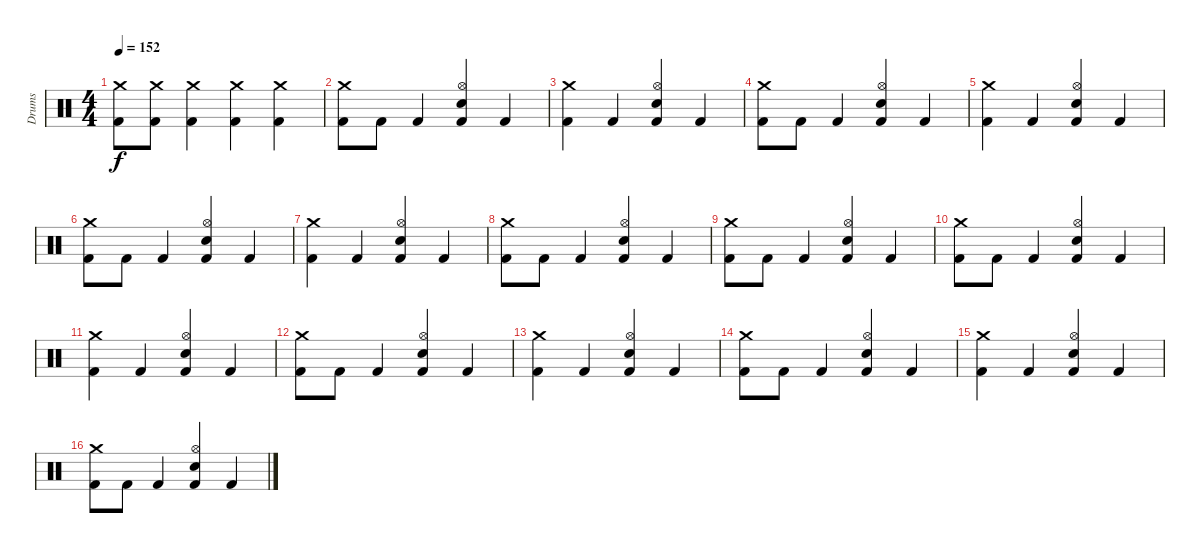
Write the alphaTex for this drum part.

\track ("Drums" "Drums") {instrument percussion}
\staff {score}
\articulation defaults
\ts (4 4)
\tempo 152
\clef neutral
\ks c
("Crash medium (hit)" "Kick (hit) 2").8{dy f} ("Crash medium (hit)" "Kick (hit) 2").8 ("Crash medium (hit)" "Kick (hit) 2").4 ("Crash medium (hit)" "Kick (hit) 2").4 ("Crash medium (hit)" "Kick (hit) 2").4 |
("Crash medium (hit)" "Kick (hit) 2").8 "Kick (hit) 2".8 "Kick (hit) 2".4 ("Hi-Hat (open)" "Snare (hit) 2" "Kick (hit) 2").4 "Kick (hit) 2".4 |
("Crash medium (hit)" "Kick (hit) 2").4 "Kick (hit) 2".4 ("Hi-Hat (open)" "Snare (hit) 2" "Kick (hit) 2").4 "Kick (hit) 2".4 |
("Crash medium (hit)" "Kick (hit) 2").8 "Kick (hit) 2".8 "Kick (hit) 2".4 ("Hi-Hat (open)" "Snare (hit) 2" "Kick (hit) 2").4 "Kick (hit) 2".4 |
("Crash medium (hit)" "Kick (hit) 2").4 "Kick (hit) 2".4 ("Hi-Hat (open)" "Snare (hit) 2" "Kick (hit) 2").4 "Kick (hit) 2".4 |
("Crash medium (hit)" "Kick (hit) 2").8 "Kick (hit) 2".8 "Kick (hit) 2".4 ("Hi-Hat (open)" "Snare (hit) 2" "Kick (hit) 2").4 "Kick (hit) 2".4 |
("Crash medium (hit)" "Kick (hit) 2").4 "Kick (hit) 2".4 ("Hi-Hat (open)" "Snare (hit) 2" "Kick (hit) 2").4 "Kick (hit) 2".4 |
("Crash medium (hit)" "Kick (hit) 2").8 "Kick (hit) 2".8 "Kick (hit) 2".4 ("Hi-Hat (open)" "Snare (hit) 2" "Kick (hit) 2").4 "Kick (hit) 2".4 |
("Crash medium (hit)" "Kick (hit) 2").8 "Kick (hit) 2".8 "Kick (hit) 2".4 ("Hi-Hat (open)" "Snare (hit) 2" "Kick (hit) 2").4 "Kick (hit) 2".4 |
("Crash medium (hit)" "Kick (hit) 2").8 "Kick (hit) 2".8 "Kick (hit) 2".4 ("Hi-Hat (open)" "Snare (hit) 2" "Kick (hit) 2").4 "Kick (hit) 2".4 |
("Crash medium (hit)" "Kick (hit) 2").4 "Kick (hit) 2".4 ("Hi-Hat (open)" "Snare (hit) 2" "Kick (hit) 2").4 "Kick (hit) 2".4 |
("Crash medium (hit)" "Kick (hit) 2").8 "Kick (hit) 2".8 "Kick (hit) 2".4 ("Hi-Hat (open)" "Snare (hit) 2" "Kick (hit) 2").4 "Kick (hit) 2".4 |
("Crash medium (hit)" "Kick (hit) 2").4 "Kick (hit) 2".4 ("Hi-Hat (open)" "Snare (hit) 2" "Kick (hit) 2").4 "Kick (hit) 2".4 |
("Crash medium (hit)" "Kick (hit) 2").8 "Kick (hit) 2".8 "Kick (hit) 2".4 ("Hi-Hat (open)" "Snare (hit) 2" "Kick (hit) 2").4 "Kick (hit) 2".4 |
("Crash medium (hit)" "Kick (hit) 2").4 "Kick (hit) 2".4 ("Hi-Hat (open)" "Snare (hit) 2" "Kick (hit) 2").4 "Kick (hit) 2".4 |
("Crash medium (hit)" "Kick (hit) 2").8 "Kick (hit) 2".8 "Kick (hit) 2".4 ("Hi-Hat (open)" "Snare (hit) 2" "Kick (hit) 2").4 "Kick (hit) 2".4
